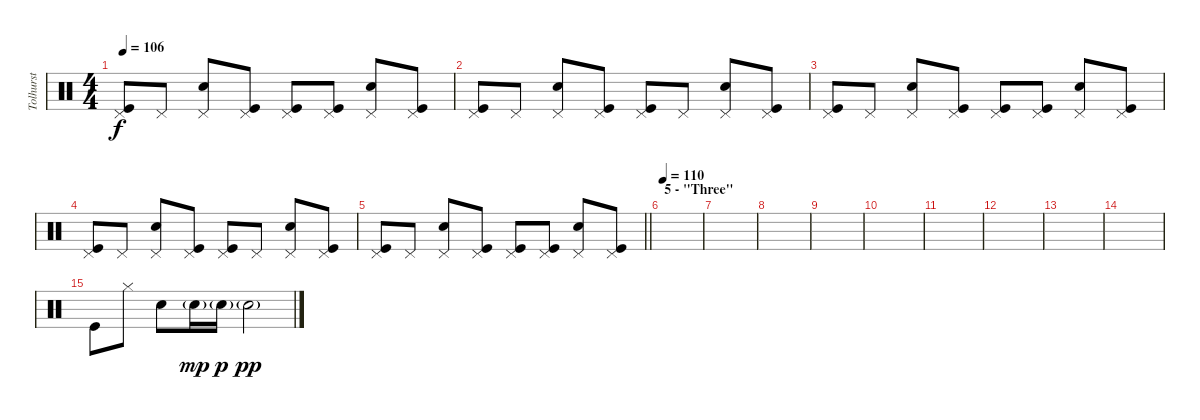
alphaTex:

\track ("Tolhurst" "Tolhurst") {instrument percussion}
\staff {score}
\articulation defaults
\ts (4 4)
\tempo 106
\clef neutral
\ks c
("Pedal Hi-Hat (hit)" "Kick (hit)").8{dy f} "Pedal Hi-Hat (hit)".8 ("Pedal Hi-Hat (hit)" "Snare (hit) 2").8 ("Pedal Hi-Hat (hit)" "Kick (hit)").8 ("Pedal Hi-Hat (hit)" "Kick (hit)").8 ("Pedal Hi-Hat (hit)" "Kick (hit)").8 ("Pedal Hi-Hat (hit)" "Snare (hit) 2").8 ("Pedal Hi-Hat (hit)" "Kick (hit)").8 |
("Pedal Hi-Hat (hit)" "Kick (hit)").8 "Pedal Hi-Hat (hit)".8 ("Pedal Hi-Hat (hit)" "Snare (hit) 2").8 ("Pedal Hi-Hat (hit)" "Kick (hit)").8 ("Pedal Hi-Hat (hit)" "Kick (hit)").8 "Pedal Hi-Hat (hit)".8 ("Pedal Hi-Hat (hit)" "Snare (hit) 2").8 ("Pedal Hi-Hat (hit)" "Kick (hit)").8 |
("Pedal Hi-Hat (hit)" "Kick (hit)").8 "Pedal Hi-Hat (hit)".8 ("Pedal Hi-Hat (hit)" "Snare (hit) 2").8 ("Pedal Hi-Hat (hit)" "Kick (hit)").8 ("Pedal Hi-Hat (hit)" "Kick (hit)").8 ("Pedal Hi-Hat (hit)" "Kick (hit)").8 ("Pedal Hi-Hat (hit)" "Snare (hit) 2").8 ("Pedal Hi-Hat (hit)" "Kick (hit)").8 |
("Pedal Hi-Hat (hit)" "Kick (hit)").8{volume 0} "Pedal Hi-Hat (hit)".8 ("Pedal Hi-Hat (hit)" "Snare (hit) 2").8 ("Pedal Hi-Hat (hit)" "Kick (hit)").8 ("Pedal Hi-Hat (hit)" "Kick (hit)").8 "Pedal Hi-Hat (hit)".8 ("Pedal Hi-Hat (hit)" "Snare (hit) 2").8 ("Pedal Hi-Hat (hit)" "Kick (hit)").8 |
\barLineRight lightlight
("Pedal Hi-Hat (hit)" "Kick (hit)").8 "Pedal Hi-Hat (hit)".8 ("Pedal Hi-Hat (hit)" "Snare (hit) 2").8 ("Pedal Hi-Hat (hit)" "Kick (hit)").8 ("Pedal Hi-Hat (hit)" "Kick (hit)").8 ("Pedal Hi-Hat (hit)" "Kick (hit)").8 ("Pedal Hi-Hat (hit)" "Snare (hit) 2").8 ("Pedal Hi-Hat (hit)" "Kick (hit)").8 |
\section ("" "5 - \"Three\"")
\tempo 110
|
|
|
|
|
|
|
|
|
"Kick (hit)".8 "Hi-Hat (closed)".8 "Snare (hit) 2".8 "Snare (hit) 2"{g}.16{dy mp} "Snare (hit) 2"{g}.16{dy p} "Snare (hit) 2"{g}.2{dy pp}
